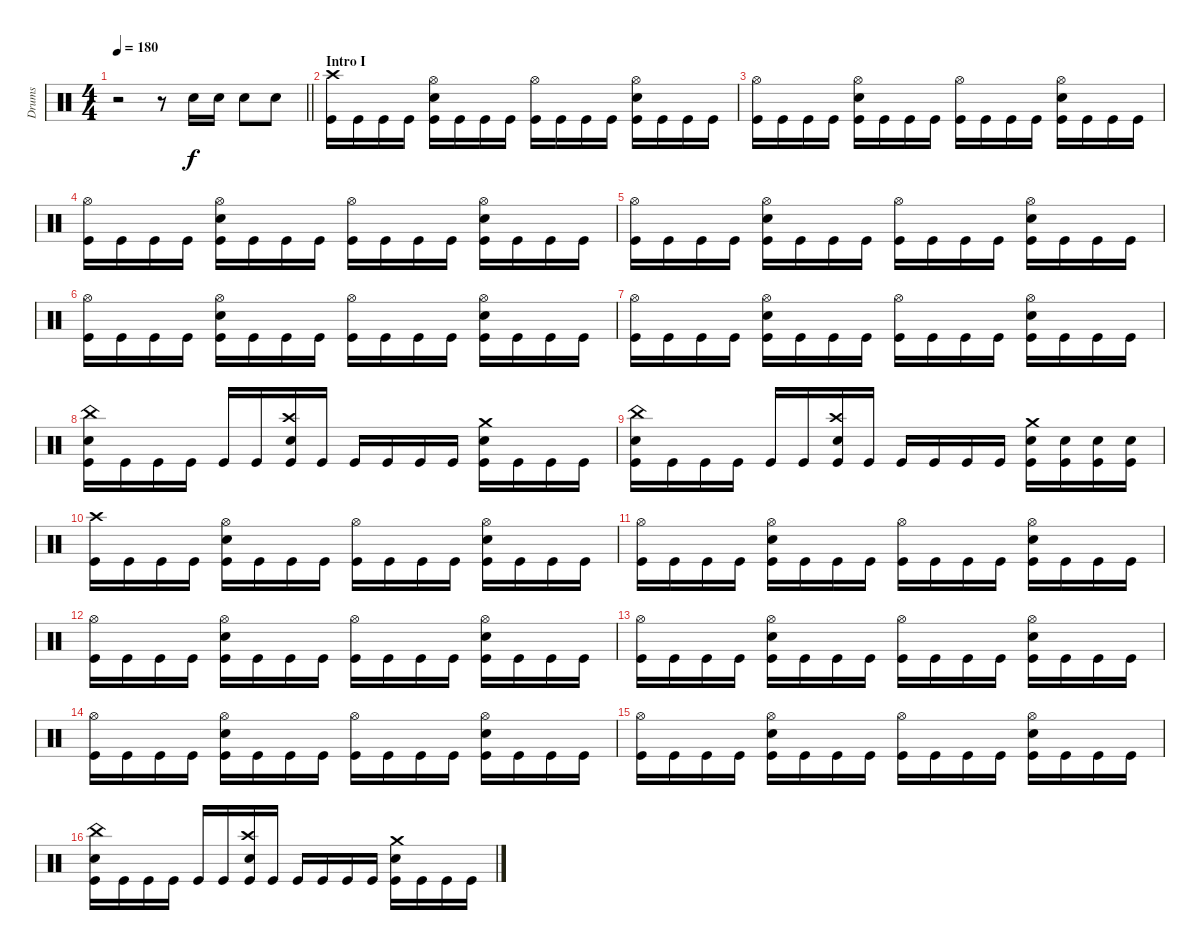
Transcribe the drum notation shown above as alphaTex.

\track ("Drums" "Drums") {instrument percussion}
\staff {score}
\articulation defaults
\ts (4 4)
\tempo 180
\clef neutral
\barLineRight lightlight
\ks c
r.2{dy f} r.8 "Electric Snare (hit)".16 "Electric Snare (hit)".16 "Electric Snare (hit)".8 "Electric Snare (hit)".8 |
\section ("" "Intro I")
("Crash high (hit)" "Kick (hit)").16 "Kick (hit)".16 "Kick (hit)".16 "Kick (hit)".16 ("Hi-Hat (open)" "Electric Snare (hit)" "Kick (hit)").16 "Kick (hit)".16 "Kick (hit)".16 "Kick (hit)".16 ("Hi-Hat (open)" "Kick (hit)").16 "Kick (hit)".16 "Kick (hit)".16 "Kick (hit)".16 ("Hi-Hat (open)" "Electric Snare (hit)" "Kick (hit)").16 "Kick (hit)".16 "Kick (hit)".16 "Kick (hit)".16 |
("Hi-Hat (open)" "Kick (hit)").16 "Kick (hit)".16 "Kick (hit)".16 "Kick (hit)".16 ("Hi-Hat (open)" "Electric Snare (hit)" "Kick (hit)").16 "Kick (hit)".16 "Kick (hit)".16 "Kick (hit)".16 ("Hi-Hat (open)" "Kick (hit)").16 "Kick (hit)".16 "Kick (hit)".16 "Kick (hit)".16 ("Hi-Hat (open)" "Electric Snare (hit)" "Kick (hit)").16 "Kick (hit)".16 "Kick (hit)".16 "Kick (hit)".16 |
("Hi-Hat (open)" "Kick (hit)").16 "Kick (hit)".16 "Kick (hit)".16 "Kick (hit)".16 ("Hi-Hat (open)" "Electric Snare (hit)" "Kick (hit)").16 "Kick (hit)".16 "Kick (hit)".16 "Kick (hit)".16 ("Hi-Hat (open)" "Kick (hit)").16 "Kick (hit)".16 "Kick (hit)".16 "Kick (hit)".16 ("Hi-Hat (open)" "Electric Snare (hit)" "Kick (hit)").16 "Kick (hit)".16 "Kick (hit)".16 "Kick (hit)".16 |
("Hi-Hat (open)" "Kick (hit)").16 "Kick (hit)".16 "Kick (hit)".16 "Kick (hit)".16 ("Hi-Hat (open)" "Electric Snare (hit)" "Kick (hit)").16 "Kick (hit)".16 "Kick (hit)".16 "Kick (hit)".16 ("Hi-Hat (open)" "Kick (hit)").16 "Kick (hit)".16 "Kick (hit)".16 "Kick (hit)".16 ("Hi-Hat (open)" "Electric Snare (hit)" "Kick (hit)").16 "Kick (hit)".16 "Kick (hit)".16 "Kick (hit)".16 |
("Hi-Hat (open)" "Kick (hit)").16 "Kick (hit)".16 "Kick (hit)".16 "Kick (hit)".16 ("Hi-Hat (open)" "Electric Snare (hit)" "Kick (hit)").16 "Kick (hit)".16 "Kick (hit)".16 "Kick (hit)".16 ("Hi-Hat (open)" "Kick (hit)").16 "Kick (hit)".16 "Kick (hit)".16 "Kick (hit)".16 ("Hi-Hat (open)" "Electric Snare (hit)" "Kick (hit)").16 "Kick (hit)".16 "Kick (hit)".16 "Kick (hit)".16 |
("Hi-Hat (open)" "Kick (hit)").16 "Kick (hit)".16 "Kick (hit)".16 "Kick (hit)".16 ("Hi-Hat (open)" "Electric Snare (hit)" "Kick (hit)").16 "Kick (hit)".16 "Kick (hit)".16 "Kick (hit)".16 ("Hi-Hat (open)" "Kick (hit)").16 "Kick (hit)".16 "Kick (hit)".16 "Kick (hit)".16 ("Hi-Hat (open)" "Electric Snare (hit)" "Kick (hit)").16 "Kick (hit)".16 "Kick (hit)".16 "Kick (hit)".16 |
("China (hit)" "Electric Snare (hit)" "Kick (hit)").16 "Kick (hit)".16 "Kick (hit)".16 "Kick (hit)".16 "Kick (hit)".16 "Kick (hit)".16 ("Crash high (hit)" "Electric Snare (hit)" "Kick (hit)").16 "Kick (hit)".16 "Kick (hit)".16 "Kick (hit)".16 "Kick (hit)".16 "Kick (hit)".16 ("Crash medium (hit)" "Electric Snare (hit)" "Kick (hit)").16 "Kick (hit)".16 "Kick (hit)".16 "Kick (hit)".16 |
("China (hit)" "Electric Snare (hit)" "Kick (hit)").16 "Kick (hit)".16 "Kick (hit)".16 "Kick (hit)".16 "Kick (hit)".16 "Kick (hit)".16 ("Crash high (hit)" "Electric Snare (hit)" "Kick (hit)").16 "Kick (hit)".16 "Kick (hit)".16 "Kick (hit)".16 "Kick (hit)".16 "Kick (hit)".16 ("Crash medium (hit)" "Electric Snare (hit)" "Kick (hit)").16 ("Electric Snare (hit)" "Kick (hit)").16 ("Electric Snare (hit)" "Kick (hit)").16 ("Electric Snare (hit)" "Kick (hit)").16 |
("Crash high (hit)" "Kick (hit)").16 "Kick (hit)".16 "Kick (hit)".16 "Kick (hit)".16 ("Hi-Hat (open)" "Electric Snare (hit)" "Kick (hit)").16 "Kick (hit)".16 "Kick (hit)".16 "Kick (hit)".16 ("Hi-Hat (open)" "Kick (hit)").16 "Kick (hit)".16 "Kick (hit)".16 "Kick (hit)".16 ("Hi-Hat (open)" "Electric Snare (hit)" "Kick (hit)").16 "Kick (hit)".16 "Kick (hit)".16 "Kick (hit)".16 |
("Hi-Hat (open)" "Kick (hit)").16 "Kick (hit)".16 "Kick (hit)".16 "Kick (hit)".16 ("Hi-Hat (open)" "Electric Snare (hit)" "Kick (hit)").16 "Kick (hit)".16 "Kick (hit)".16 "Kick (hit)".16 ("Hi-Hat (open)" "Kick (hit)").16 "Kick (hit)".16 "Kick (hit)".16 "Kick (hit)".16 ("Hi-Hat (open)" "Electric Snare (hit)" "Kick (hit)").16 "Kick (hit)".16 "Kick (hit)".16 "Kick (hit)".16 |
("Hi-Hat (open)" "Kick (hit)").16 "Kick (hit)".16 "Kick (hit)".16 "Kick (hit)".16 ("Hi-Hat (open)" "Electric Snare (hit)" "Kick (hit)").16 "Kick (hit)".16 "Kick (hit)".16 "Kick (hit)".16 ("Hi-Hat (open)" "Kick (hit)").16 "Kick (hit)".16 "Kick (hit)".16 "Kick (hit)".16 ("Hi-Hat (open)" "Electric Snare (hit)" "Kick (hit)").16 "Kick (hit)".16 "Kick (hit)".16 "Kick (hit)".16 |
("Hi-Hat (open)" "Kick (hit)").16 "Kick (hit)".16 "Kick (hit)".16 "Kick (hit)".16 ("Hi-Hat (open)" "Electric Snare (hit)" "Kick (hit)").16 "Kick (hit)".16 "Kick (hit)".16 "Kick (hit)".16 ("Hi-Hat (open)" "Kick (hit)").16 "Kick (hit)".16 "Kick (hit)".16 "Kick (hit)".16 ("Hi-Hat (open)" "Electric Snare (hit)" "Kick (hit)").16 "Kick (hit)".16 "Kick (hit)".16 "Kick (hit)".16 |
("Hi-Hat (open)" "Kick (hit)").16 "Kick (hit)".16 "Kick (hit)".16 "Kick (hit)".16 ("Hi-Hat (open)" "Electric Snare (hit)" "Kick (hit)").16 "Kick (hit)".16 "Kick (hit)".16 "Kick (hit)".16 ("Hi-Hat (open)" "Kick (hit)").16 "Kick (hit)".16 "Kick (hit)".16 "Kick (hit)".16 ("Hi-Hat (open)" "Electric Snare (hit)" "Kick (hit)").16 "Kick (hit)".16 "Kick (hit)".16 "Kick (hit)".16 |
("Hi-Hat (open)" "Kick (hit)").16 "Kick (hit)".16 "Kick (hit)".16 "Kick (hit)".16 ("Hi-Hat (open)" "Electric Snare (hit)" "Kick (hit)").16 "Kick (hit)".16 "Kick (hit)".16 "Kick (hit)".16 ("Hi-Hat (open)" "Kick (hit)").16 "Kick (hit)".16 "Kick (hit)".16 "Kick (hit)".16 ("Hi-Hat (open)" "Electric Snare (hit)" "Kick (hit)").16 "Kick (hit)".16 "Kick (hit)".16 "Kick (hit)".16 |
("China (hit)" "Electric Snare (hit)" "Kick (hit)").16 "Kick (hit)".16 "Kick (hit)".16 "Kick (hit)".16 "Kick (hit)".16 "Kick (hit)".16 ("Crash high (hit)" "Electric Snare (hit)" "Kick (hit)").16 "Kick (hit)".16 "Kick (hit)".16 "Kick (hit)".16 "Kick (hit)".16 "Kick (hit)".16 ("Crash medium (hit)" "Electric Snare (hit)" "Kick (hit)").16 "Kick (hit)".16 "Kick (hit)".16 "Kick (hit)".16
